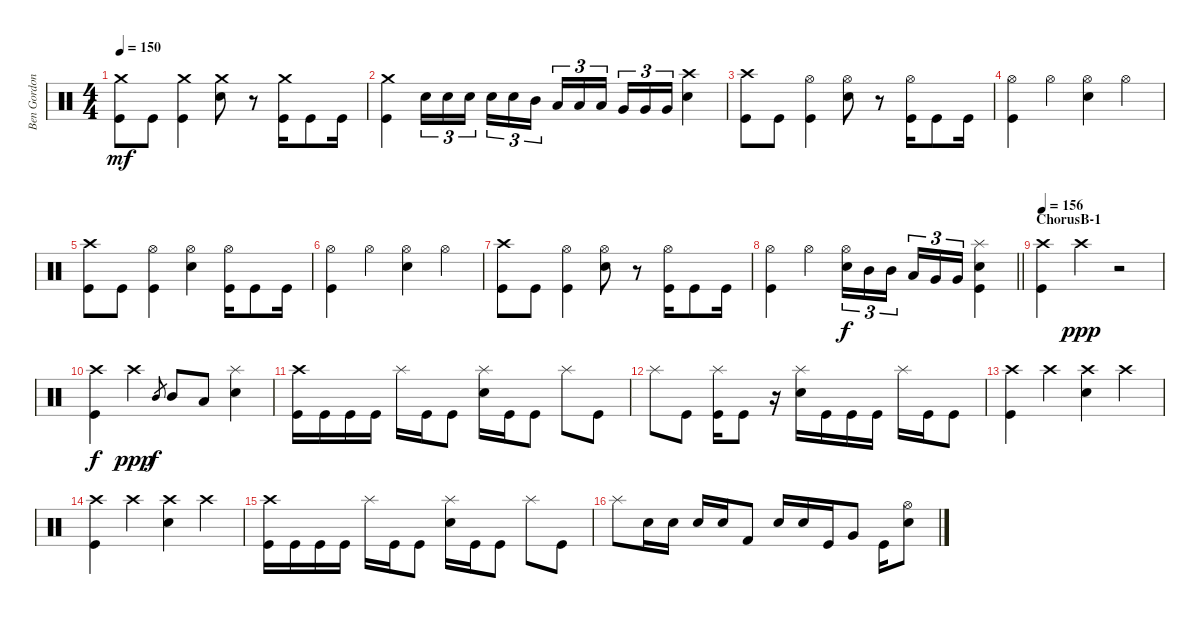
\track ("Ben Gordon" "Ben Gordon") {instrument percussion}
\staff {score}
\articulation defaults
\ts (4 4)
\tempo 150
\clef neutral
\ks c
("Crash medium (hit)" "Kick (hit)").8{dy mf} "Kick (hit)".8 ("Crash medium (hit)" "Kick (hit)").4 ("Crash medium (hit)" "Electric Snare (hit)").8 r.8 ("Crash medium (hit)" "Kick (hit)").16 "Kick (hit)".8 "Kick (hit)".16 |
("Crash medium (hit)" "Kick (hit)").4 "Electric Snare (hit)".16{tu (3 2)} "Electric Snare (hit)".16{tu (3 2)} "Electric Snare (hit)".16{tu (3 2) beam splitsecondary} "Electric Snare (hit)".16{tu (3 2)} "Electric Snare (hit)".16{tu (3 2)} "Mid Tom (hit)".16{tu (3 2)} "Low Tom (hit)".16{tu (3 2)} "Low Tom (hit)".16{tu (3 2)} "Low Tom (hit)".16{tu (3 2) beam splitsecondary} "Very Low Tom (hit)".16{tu (3 2)} "Very Low Tom (hit)".16{tu (3 2)} "Very Low Tom (hit)".16{tu (3 2)} ("Crash high (hit)" "Electric Snare (hit)").4 |
("Crash high (hit)" "Kick (hit)").8 "Kick (hit)".8 ("Hi-Hat (open)" "Kick (hit)").4 ("Hi-Hat (open)" "Electric Snare (hit)").8 r.8 ("Hi-Hat (open)" "Kick (hit)").16 "Kick (hit)".8 "Kick (hit)".16 |
("Hi-Hat (open)" "Kick (hit)").4 "Hi-Hat (open)".4 ("Hi-Hat (open)" "Electric Snare (hit)").4 "Hi-Hat (open)".4 |
("Crash high (hit)" "Kick (hit)").8 "Kick (hit)".8 ("Hi-Hat (open)" "Kick (hit)").4 ("Hi-Hat (open)" "Electric Snare (hit)").4 ("Hi-Hat (open)" "Kick (hit)").16 "Kick (hit)".8 "Kick (hit)".16 |
("Hi-Hat (open)" "Kick (hit)").4 "Hi-Hat (open)".4 ("Hi-Hat (open)" "Electric Snare (hit)").4 "Hi-Hat (open)".4 |
("Crash high (hit)" "Kick (hit)").8 "Kick (hit)".8 ("Hi-Hat (open)" "Kick (hit)").4 ("Hi-Hat (open)" "Electric Snare (hit)").8 r.8 ("Hi-Hat (open)" "Kick (hit)").16 "Kick (hit)".8 "Kick (hit)".16 |
\barLineRight lightlight
("Hi-Hat (open)" "Kick (hit)").4 "Hi-Hat (open)".4 ("Hi-Hat (open)" "Electric Snare (hit)").16{tu (3 2) dy f} "Mid Tom (hit)".16{tu (3 2)} "Mid Tom (hit)".16{tu (3 2) beam splitsecondary} "Low Tom (hit)".16{tu (3 2)} "Very Low Tom (hit)".16{tu (3 2)} "Very Low Tom (hit)".16{tu (3 2)} ("Splash (hit)" "Electric Snare (hit)" "Kick (hit)").4 |
\section ("" "ChorusB-1")
\tempo 156
("Crash high (hit)" "Kick (hit)").4 "Crash high (hit)".4{dy ppp} r.2 |
("Crash high (hit)" "Kick (hit)").4{dy f} "Crash high (hit)".4{dy ppp} "Mid Tom (hit)".8{gr dy f} "Mid Tom (hit)".8 "Low Tom (hit)".8 ("Splash (hit)" "Electric Snare (hit)").4 |
("Crash high (hit)" "Kick (hit)").16 "Kick (hit)".16 "Kick (hit)".16 "Kick (hit)".16 "Splash (hit)".16 "Kick (hit)".16 "Kick (hit)".8 ("Splash (hit)" "Electric Snare (hit)").16 "Kick (hit)".16 "Kick (hit)".8 "Splash (hit)".8 "Kick (hit)".8 |
"Splash (hit)".8 "Kick (hit)".8 ("Splash (hit)" "Kick (hit)").16 "Kick (hit)".8 r.16 ("Splash (hit)" "Electric Snare (hit)").16 "Kick (hit)".16 "Kick (hit)".16 "Kick (hit)".16 "Splash (hit)".16 "Kick (hit)".16 "Kick (hit)".8 |
("Crash high (hit)" "Kick (hit)").4 "Crash high (hit)".4 ("Crash high (hit)" "Electric Snare (hit)").4 "Crash high (hit)".4 |
("Crash high (hit)" "Kick (hit)").4 "Crash high (hit)".4 ("Crash high (hit)" "Electric Snare (hit)").4 "Crash high (hit)".4 |
("Crash high (hit)" "Kick (hit)").16 "Kick (hit)".16 "Kick (hit)".16 "Kick (hit)".16 "Splash (hit)".16 "Kick (hit)".16 "Kick (hit)".8 ("Splash (hit)" "Electric Snare (hit)").16 "Kick (hit)".16 "Kick (hit)".8 "Splash (hit)".8 "Kick (hit)".8 |
"Splash (hit)".8 "Electric Snare (hit)".16 "Electric Snare (hit)".16 "Electric Snare (hit)".16 "Electric Snare (hit)".16 "Kick (hit) 2".8 "Electric Snare (hit)".16 "Electric Snare (hit)".16 "Kick (hit)".16 "Very Low Tom (hit)".8 "Kick (hit)".16 ("Hi-Hat (open)" "Electric Snare (hit)").8
